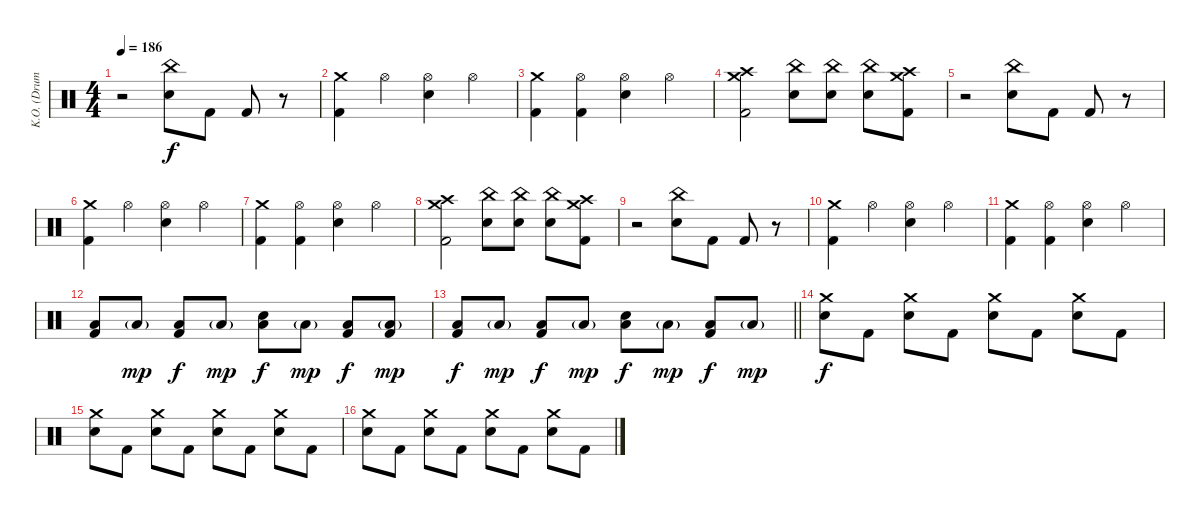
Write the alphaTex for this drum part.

\track ("K.O. (Drums)" "K.O. (Drum") {instrument percussion}
\staff {score}
\articulation defaults
\ts (4 4)
\tempo 186
\clef neutral
\ks c
r.2{dy f} ("China (hit)" "Electric Snare (hit)").8 "Kick (hit) 2".8 "Kick (hit) 2".8 r.8 |
("Crash medium (hit)" "Kick (hit) 2").4 "Hi-Hat (open)".4 ("Hi-Hat (open)" "Electric Snare (hit)").4 "Hi-Hat (open)".4 |
("Crash medium (hit)" "Kick (hit) 2").4 ("Hi-Hat (open)" "Kick (hit) 2").4 ("Hi-Hat (open)" "Electric Snare (hit)").4 "Hi-Hat (open)".4 |
("Crash medium (hit)" "Crash high (hit)" "Kick (hit) 2").2 ("China (hit)" "Electric Snare (hit)").8 ("China (hit)" "Electric Snare (hit)").8 ("China (hit)" "Electric Snare (hit)").8 ("Crash medium (hit)" "Crash high (hit)" "Kick (hit) 2").8 |
r.2 ("China (hit)" "Electric Snare (hit)").8 "Kick (hit) 2".8 "Kick (hit) 2".8 r.8 |
("Crash medium (hit)" "Kick (hit) 2").4 "Hi-Hat (open)".4 ("Hi-Hat (open)" "Electric Snare (hit)").4 "Hi-Hat (open)".4 |
("Crash medium (hit)" "Kick (hit) 2").4 ("Hi-Hat (open)" "Kick (hit) 2").4 ("Hi-Hat (open)" "Electric Snare (hit)").4 "Hi-Hat (open)".4 |
("Crash medium (hit)" "Crash high (hit)" "Kick (hit) 2").2 ("China (hit)" "Electric Snare (hit)").8 ("China (hit)" "Electric Snare (hit)").8 ("China (hit)" "Electric Snare (hit)").8 ("Crash medium (hit)" "Crash high (hit)" "Kick (hit) 2").8 |
r.2 ("China (hit)" "Electric Snare (hit)").8 "Kick (hit) 2".8 "Kick (hit) 2".8 r.8 |
("Crash medium (hit)" "Kick (hit) 2").4 "Hi-Hat (open)".4 ("Hi-Hat (open)" "Electric Snare (hit)").4 "Hi-Hat (open)".4 |
("Crash medium (hit)" "Kick (hit) 2").4 ("Hi-Hat (open)" "Kick (hit) 2").4 ("Hi-Hat (open)" "Electric Snare (hit)").4 "Hi-Hat (open)".4 |
("Low Floor Tom (hit)" "Kick (hit) 2").8 "Low Floor Tom (hit)"{g}.8{dy mp} ("Low Floor Tom (hit)" "Kick (hit) 2").8{dy f} "Low Floor Tom (hit)"{g}.8{dy mp} ("Low Floor Tom (hit)" "Electric Snare (hit)").8{dy f} "Low Floor Tom (hit)"{g}.8{dy mp} ("Low Floor Tom (hit)" "Kick (hit) 2").8{dy f} ("Low Floor Tom (hit)"{g} "Kick (hit) 2").8{dy mp} |
\barLineRight lightlight
("Low Floor Tom (hit)" "Kick (hit) 2").8{dy f} "Low Floor Tom (hit)"{g}.8{dy mp} ("Low Floor Tom (hit)" "Kick (hit) 2").8{dy f} "Low Floor Tom (hit)"{g}.8{dy mp} ("Low Floor Tom (hit)" "Electric Snare (hit)").8{dy f} "Low Floor Tom (hit)"{g}.8{dy mp} ("Low Floor Tom (hit)" "Kick (hit) 2").8{dy f} "Low Floor Tom (hit)"{g}.8{dy mp} |
("Crash medium (hit)" "Electric Snare (hit)").8{dy f} "Kick (hit) 2".8 ("Crash medium (hit)" "Electric Snare (hit)").8 "Kick (hit) 2".8 ("Crash medium (hit)" "Electric Snare (hit)").8 "Kick (hit) 2".8 ("Crash medium (hit)" "Electric Snare (hit)").8 "Kick (hit) 2".8 |
("Crash medium (hit)" "Electric Snare (hit)").8 "Kick (hit) 2".8 ("Crash medium (hit)" "Electric Snare (hit)").8 "Kick (hit) 2".8 ("Crash medium (hit)" "Electric Snare (hit)").8 "Kick (hit) 2".8 ("Crash medium (hit)" "Electric Snare (hit)").8 "Kick (hit) 2".8 |
("Crash medium (hit)" "Electric Snare (hit)").8 "Kick (hit) 2".8 ("Crash medium (hit)" "Electric Snare (hit)").8 "Kick (hit) 2".8 ("Crash medium (hit)" "Electric Snare (hit)").8 "Kick (hit) 2".8 ("Crash medium (hit)" "Electric Snare (hit)").8 "Kick (hit) 2".8
